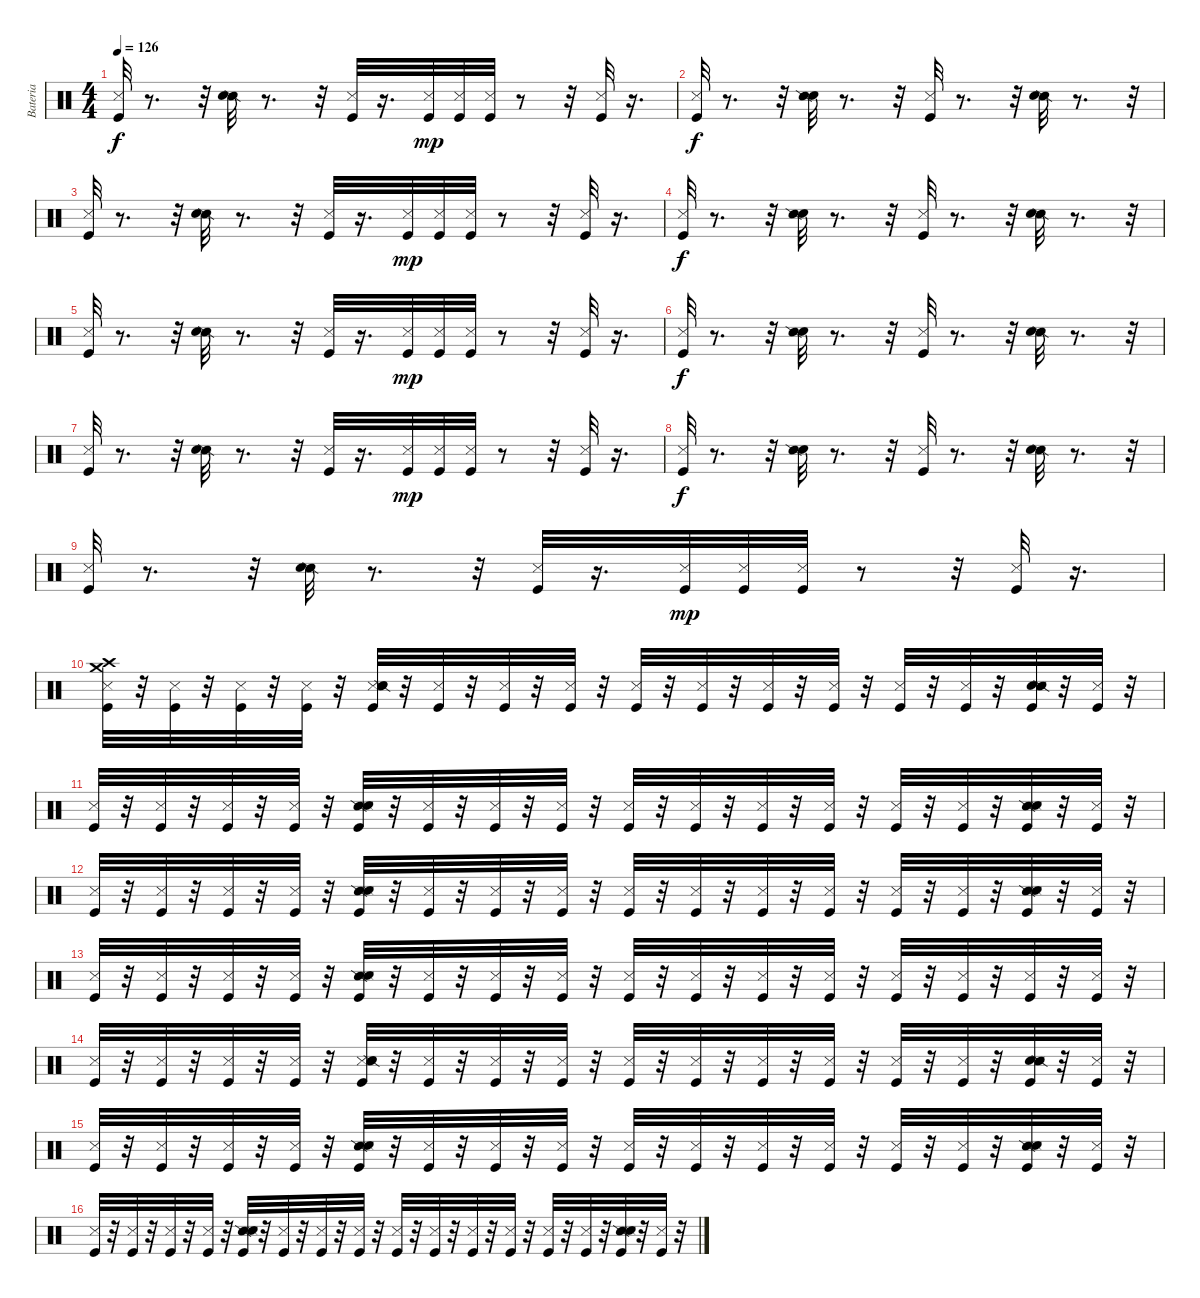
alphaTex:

\track ("Bateria" "Bateria") {instrument percussion}
\staff {score}
\articulation defaults
\ts (4 4)
\tempo 126
\clef neutral
\ks c
("Metronome (hit)" "Kick (hit)").32{dy f} r.8{d} r.32 ("Snare (side stick) 2" "Metronome (bell)").32 r.8{d} r.32 ("Metronome (hit)" "Kick (hit)").32 r.16{d} ("Metronome (hit)" "Kick (hit)").32{dy mp} ("Kick (hit)" "Metronome (hit)").32 ("Metronome (hit)" "Kick (hit)").32 r.8 r.32 ("Metronome (hit)" "Kick (hit)").32 r.16{d} |
("Kick (hit)" "Metronome (hit)").32{dy f} r.8{d} r.32 ("Metronome (bell)" "Snare (side stick) 2").32 r.8{d} r.32 ("Metronome (hit)" "Kick (hit)").32 r.8{d} r.32 ("Snare (side stick) 2" "Metronome (bell)").32 r.8{d} r.32 |
("Metronome (hit)" "Kick (hit)").32 r.8{d} r.32 ("Snare (side stick) 2" "Metronome (bell)").32 r.8{d} r.32 ("Metronome (hit)" "Kick (hit)").32 r.16{d} ("Metronome (hit)" "Kick (hit)").32{dy mp} ("Kick (hit)" "Metronome (hit)").32 ("Metronome (hit)" "Kick (hit)").32 r.8 r.32 ("Metronome (hit)" "Kick (hit)").32 r.16{d} |
("Kick (hit)" "Metronome (hit)").32{dy f} r.8{d} r.32 ("Metronome (bell)" "Snare (side stick) 2").32 r.8{d} r.32 ("Metronome (hit)" "Kick (hit)").32 r.8{d} r.32 ("Snare (side stick) 2" "Metronome (bell)").32 r.8{d} r.32 |
("Metronome (hit)" "Kick (hit)").32 r.8{d} r.32 ("Snare (side stick) 2" "Metronome (bell)").32 r.8{d} r.32 ("Metronome (hit)" "Kick (hit)").32 r.16{d} ("Metronome (hit)" "Kick (hit)").32{dy mp} ("Kick (hit)" "Metronome (hit)").32 ("Metronome (hit)" "Kick (hit)").32 r.8 r.32 ("Metronome (hit)" "Kick (hit)").32 r.16{d} |
("Kick (hit)" "Metronome (hit)").32{dy f} r.8{d} r.32 ("Metronome (bell)" "Snare (side stick) 2").32 r.8{d} r.32 ("Metronome (hit)" "Kick (hit)").32 r.8{d} r.32 ("Snare (side stick) 2" "Metronome (bell)").32 r.8{d} r.32 |
("Metronome (hit)" "Kick (hit)").32 r.8{d} r.32 ("Snare (side stick) 2" "Metronome (bell)").32 r.8{d} r.32 ("Metronome (hit)" "Kick (hit)").32 r.16{d} ("Metronome (hit)" "Kick (hit)").32{dy mp} ("Kick (hit)" "Metronome (hit)").32 ("Metronome (hit)" "Kick (hit)").32 r.8 r.32 ("Metronome (hit)" "Kick (hit)").32 r.16{d} |
("Kick (hit)" "Metronome (hit)").32{dy f} r.8{d} r.32 ("Metronome (bell)" "Snare (side stick) 2").32 r.8{d} r.32 ("Metronome (hit)" "Kick (hit)").32 r.8{d} r.32 ("Snare (side stick) 2" "Metronome (bell)").32 r.8{d} r.32 |
("Metronome (hit)" "Kick (hit)").32 r.8{d} r.32 ("Snare (side stick) 2" "Metronome (bell)").32 r.8{d} r.32 ("Metronome (hit)" "Kick (hit)").32 r.16{d} ("Metronome (hit)" "Kick (hit)").32{dy mp} ("Kick (hit)" "Metronome (hit)").32 ("Metronome (hit)" "Kick (hit)").32 r.8 r.32 ("Metronome (hit)" "Kick (hit)").32 r.16{d} |
("Crash high (hit)" "Crash medium (hit)" "Metronome (hit)" "Kick (hit)").32 r.32 ("Metronome (hit)" "Kick (hit)").32 r.32 ("Metronome (hit)" "Kick (hit)").32 r.32 ("Metronome (hit)" "Kick (hit)").32 r.32 ("Metronome (hit)" "Kick (hit)" "Snare (side stick) 2" "Metronome (bell)").32 r.32 ("Metronome (hit)" "Kick (hit)").32 r.32 ("Metronome (hit)" "Kick (hit)").32 r.32 ("Metronome (hit)" "Kick (hit)").32 r.32 ("Metronome (hit)" "Kick (hit)").32 r.32 ("Metronome (hit)" "Kick (hit)").32 r.32 ("Metronome (hit)" "Kick (hit)").32 r.32 ("Metronome (hit)" "Kick (hit)").32 r.32 ("Metronome (hit)" "Kick (hit)").32 r.32 ("Metronome (hit)" "Kick (hit)").32 r.32 ("Metronome (bell)" "Metronome (hit)" "Kick (hit)" "Snare (side stick) 2").32 r.32 ("Metronome (hit)" "Kick (hit)").32 r.32 |
("Metronome (hit)" "Kick (hit)").32 r.32 ("Metronome (hit)" "Kick (hit)").32 r.32 ("Metronome (hit)" "Kick (hit)").32 r.32 ("Metronome (hit)" "Kick (hit)").32 r.32 ("Snare (side stick) 2" "Metronome (bell)" "Metronome (hit)" "Kick (hit)").32 r.32 ("Metronome (hit)" "Kick (hit)").32 r.32 ("Metronome (hit)" "Kick (hit)").32 r.32 ("Metronome (hit)" "Kick (hit)").32 r.32 ("Metronome (hit)" "Kick (hit)").32 r.32 ("Metronome (hit)" "Kick (hit)").32 r.32 ("Metronome (hit)" "Kick (hit)").32 r.32 ("Metronome (hit)" "Kick (hit)").32 r.32 ("Metronome (hit)" "Kick (hit)").32 r.32 ("Metronome (hit)" "Kick (hit)").32 r.32 ("Snare (side stick) 2" "Metronome (bell)" "Metronome (hit)" "Kick (hit)").32 r.32 ("Metronome (hit)" "Kick (hit)").32 r.32 |
("Metronome (hit)" "Kick (hit)").32 r.32 ("Metronome (hit)" "Kick (hit)").32 r.32 ("Metronome (hit)" "Kick (hit)").32 r.32 ("Metronome (hit)" "Kick (hit)").32 r.32 ("Snare (side stick) 2" "Metronome (bell)" "Metronome (hit)" "Kick (hit)").32 r.32 ("Metronome (hit)" "Kick (hit)").32 r.32 ("Metronome (hit)" "Kick (hit)").32 r.32 ("Metronome (hit)" "Kick (hit)").32 r.32 ("Metronome (hit)" "Kick (hit)").32 r.32 ("Metronome (hit)" "Kick (hit)").32 r.32 ("Metronome (hit)" "Kick (hit)").32 r.32 ("Metronome (hit)" "Kick (hit)").32 r.32 ("Metronome (hit)" "Kick (hit)").32 r.32 ("Metronome (hit)" "Kick (hit)").32 r.32 ("Snare (side stick) 2" "Metronome (bell)" "Metronome (hit)" "Kick (hit)").32 r.32 ("Metronome (hit)" "Kick (hit)").32 r.32 |
("Metronome (hit)" "Kick (hit)").32 r.32 ("Metronome (hit)" "Kick (hit)").32 r.32 ("Metronome (hit)" "Kick (hit)").32 r.32 ("Metronome (hit)" "Kick (hit)").32 r.32 ("Snare (side stick) 2" "Metronome (hit)" "Kick (hit)" "Metronome (bell)").32 r.32 ("Metronome (hit)" "Kick (hit)").32 r.32 ("Metronome (hit)" "Kick (hit)").32 r.32 ("Metronome (hit)" "Kick (hit)").32 r.32 ("Metronome (hit)" "Kick (hit)").32 r.32 ("Metronome (hit)" "Kick (hit)").32 r.32 ("Metronome (hit)" "Kick (hit)").32 r.32 ("Metronome (hit)" "Kick (hit)").32 r.32 ("Metronome (hit)" "Kick (hit)").32 r.32 ("Metronome (hit)" "Kick (hit)").32 r.32 ("Metronome (hit)" "Kick (hit)").32 r.32 ("Metronome (hit)" "Kick (hit)").32 r.32 |
("Metronome (hit)" "Kick (hit)").32 r.32 ("Metronome (hit)" "Kick (hit)").32 r.32 ("Metronome (hit)" "Kick (hit)").32 r.32 ("Metronome (hit)" "Kick (hit)").32 r.32 ("Metronome (hit)" "Kick (hit)" "Snare (side stick) 2" "Metronome (bell)").32 r.32 ("Metronome (hit)" "Kick (hit)").32 r.32 ("Metronome (hit)" "Kick (hit)").32 r.32 ("Metronome (hit)" "Kick (hit)").32 r.32 ("Metronome (hit)" "Kick (hit)").32 r.32 ("Metronome (hit)" "Kick (hit)").32 r.32 ("Metronome (hit)" "Kick (hit)").32 r.32 ("Metronome (hit)" "Kick (hit)").32 r.32 ("Metronome (hit)" "Kick (hit)").32 r.32 ("Metronome (hit)" "Kick (hit)").32 r.32 ("Metronome (bell)" "Metronome (hit)" "Kick (hit)" "Snare (side stick) 2").32 r.32 ("Metronome (hit)" "Kick (hit)").32 r.32 |
("Metronome (hit)" "Kick (hit)").32 r.32 ("Metronome (hit)" "Kick (hit)").32 r.32 ("Metronome (hit)" "Kick (hit)").32 r.32 ("Metronome (hit)" "Kick (hit)").32 r.32 ("Snare (side stick) 2" "Metronome (bell)" "Metronome (hit)" "Kick (hit)").32 r.32 ("Metronome (hit)" "Kick (hit)").32 r.32 ("Metronome (hit)" "Kick (hit)").32 r.32 ("Metronome (hit)" "Kick (hit)").32 r.32 ("Metronome (hit)" "Kick (hit)").32 r.32 ("Metronome (hit)" "Kick (hit)").32 r.32 ("Metronome (hit)" "Kick (hit)").32 r.32 ("Metronome (hit)" "Kick (hit)").32 r.32 ("Metronome (hit)" "Kick (hit)").32 r.32 ("Metronome (hit)" "Kick (hit)").32 r.32 ("Snare (side stick) 2" "Metronome (bell)" "Metronome (hit)" "Kick (hit)").32 r.32 ("Metronome (hit)" "Kick (hit)").32 r.32 |
("Metronome (hit)" "Kick (hit)").32 r.32 ("Metronome (hit)" "Kick (hit)").32 r.32 ("Metronome (hit)" "Kick (hit)").32 r.32 ("Metronome (hit)" "Kick (hit)").32 r.32 ("Snare (side stick) 2" "Metronome (bell)" "Metronome (hit)" "Kick (hit)").32 r.32 ("Metronome (hit)" "Kick (hit)").32 r.32 ("Metronome (hit)" "Kick (hit)").32 r.32 ("Metronome (hit)" "Kick (hit)").32 r.32 ("Metronome (hit)" "Kick (hit)").32 r.32 ("Metronome (hit)" "Kick (hit)").32 r.32 ("Metronome (hit)" "Kick (hit)").32 r.32 ("Metronome (hit)" "Kick (hit)").32 r.32 ("Metronome (hit)" "Kick (hit)").32 r.32 ("Metronome (hit)" "Kick (hit)").32 r.32 ("Snare (side stick) 2" "Metronome (bell)" "Metronome (hit)" "Kick (hit)").32 r.32 ("Metronome (hit)" "Kick (hit)").32 r.32
